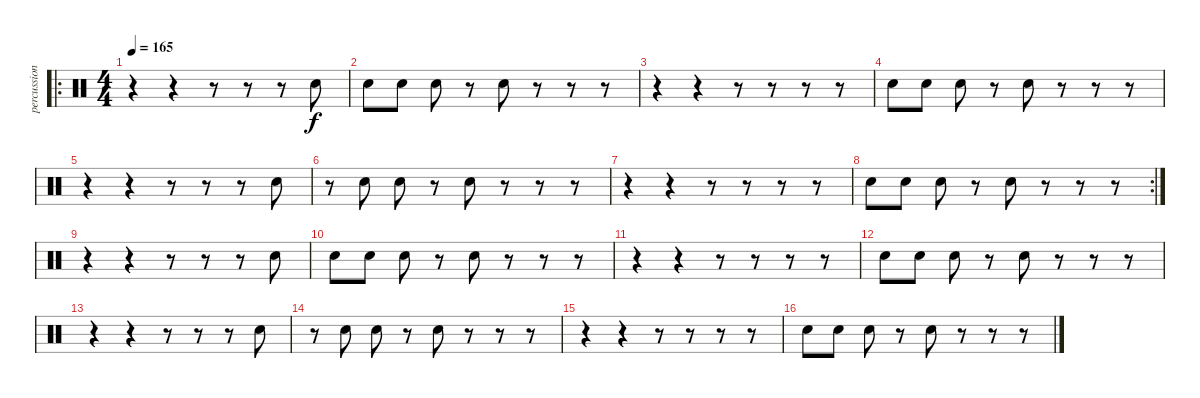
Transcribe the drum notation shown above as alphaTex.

\track ("percussion" "percussion") {instrument percussion}
\staff {score}
\articulation defaults
\ro
\ts (4 4)
\tempo 165
\clef neutral
\ks c
r.4{dy f} r.4 r.8 r.8 r.8 "Hand Clap (hit)".8 |
"Hand Clap (hit)".8 "Hand Clap (hit)".8 "Hand Clap (hit)".8 r.8 "Hand Clap (hit)".8 r.8 r.8 r.8 |
r.4 r.4 r.8 r.8 r.8 r.8 |
"Hand Clap (hit)".8 "Hand Clap (hit)".8 "Hand Clap (hit)".8 r.8 "Hand Clap (hit)".8 r.8 r.8 r.8 |
r.4 r.4 r.8 r.8 r.8 "Hand Clap (hit)".8 |
r.8 "Hand Clap (hit)".8 "Hand Clap (hit)".8 r.8 "Hand Clap (hit)".8 r.8 r.8 r.8 |
r.4 r.4 r.8 r.8 r.8 r.8 |
\rc 2 "Hand Clap (hit)".8 "Hand Clap (hit)".8 "Hand Clap (hit)".8
r.8 "Hand Clap (hit)".8 r.8 r.8 r.8 |
r.4 r.4 r.8 r.8 r.8 "Hand Clap (hit)".8 |
"Hand Clap (hit)".8 "Hand Clap (hit)".8 "Hand Clap (hit)".8 r.8 "Hand Clap (hit)".8 r.8 r.8 r.8 |
r.4 r.4 r.8 r.8 r.8 r.8 |
"Hand Clap (hit)".8 "Hand Clap (hit)".8 "Hand Clap (hit)".8 r.8 "Hand Clap (hit)".8 r.8 r.8 r.8 |
r.4 r.4 r.8 r.8 r.8 "Hand Clap (hit)".8 |
r.8 "Hand Clap (hit)".8 "Hand Clap (hit)".8 r.8 "Hand Clap (hit)".8 r.8 r.8 r.8 |
r.4 r.4 r.8 r.8 r.8 r.8 |
"Hand Clap (hit)".8 "Hand Clap (hit)".8 "Hand Clap (hit)".8 r.8 "Hand Clap (hit)".8 r.8 r.8 r.8
